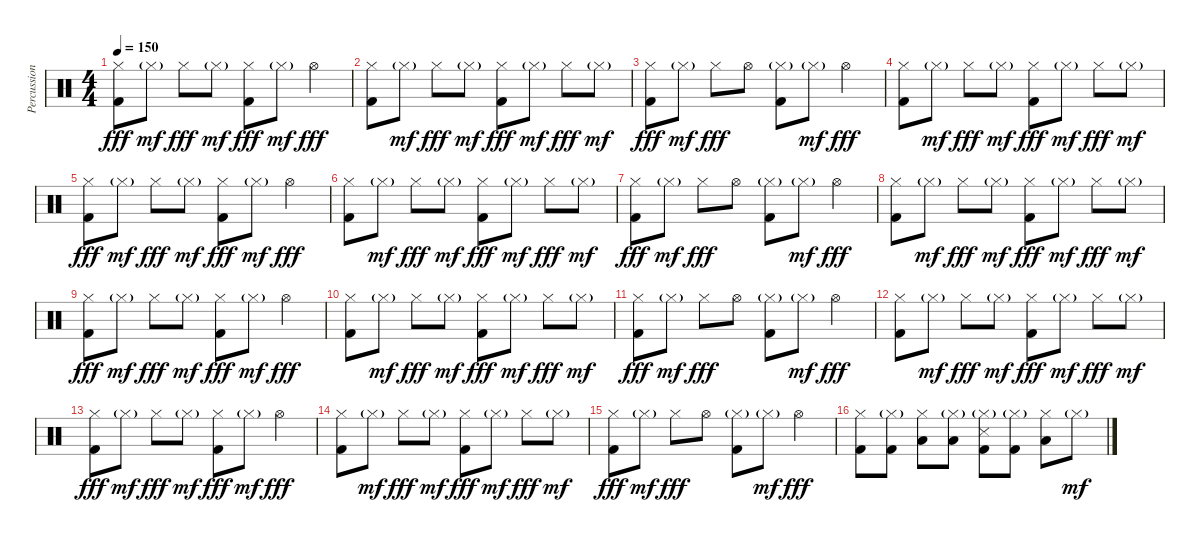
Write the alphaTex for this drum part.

\track ("Percussion" "Percussion") {instrument percussion}
\staff {score}
\articulation defaults
\ts (4 4)
\tempo 150
\clef neutral
\ks c
("Hi-Hat (closed)" "Kick (hit) 2").8{dy fff} "Hi-Hat (closed)"{g}.8{dy mf} "Hi-Hat (closed)".8{dy fff} "Hi-Hat (closed)"{g}.8{dy mf} ("Hi-Hat (closed)" "Kick (hit) 2").8{dy fff} "Hi-Hat (closed)"{g}.8{dy mf} "Hi-Hat (open)".4{dy fff} |
("Hi-Hat (closed)" "Kick (hit) 2").8 "Hi-Hat (closed)"{g}.8{dy mf} "Hi-Hat (closed)".8{dy fff} "Hi-Hat (closed)"{g}.8{dy mf} ("Hi-Hat (closed)" "Kick (hit) 2").8{dy fff} "Hi-Hat (closed)"{g}.8{dy mf} "Hi-Hat (closed)".8{dy fff} "Hi-Hat (closed)"{g}.8{dy mf} |
("Hi-Hat (closed)" "Kick (hit) 2").8{dy fff} "Hi-Hat (closed)"{g}.8{dy mf} "Hi-Hat (closed)".8{dy fff} "Hi-Hat (open)".8 ("Hi-Hat (closed)"{g} "Kick (hit) 2").8 "Hi-Hat (closed)"{g}.8{dy mf} "Hi-Hat (open)".4{dy fff} |
("Hi-Hat (closed)" "Kick (hit) 2").8 "Hi-Hat (closed)"{g}.8{dy mf} "Hi-Hat (closed)".8{dy fff} "Hi-Hat (closed)"{g}.8{dy mf} ("Hi-Hat (closed)" "Kick (hit) 2").8{dy fff} "Hi-Hat (closed)"{g}.8{dy mf} "Hi-Hat (closed)".8{dy fff} "Hi-Hat (closed)"{g}.8{dy mf} |
("Hi-Hat (closed)" "Kick (hit) 2").8{dy fff} "Hi-Hat (closed)"{g}.8{dy mf} "Hi-Hat (closed)".8{dy fff} "Hi-Hat (closed)"{g}.8{dy mf} ("Hi-Hat (closed)" "Kick (hit) 2").8{dy fff} "Hi-Hat (closed)"{g}.8{dy mf} "Hi-Hat (open)".4{dy fff} |
("Hi-Hat (closed)" "Kick (hit) 2").8 "Hi-Hat (closed)"{g}.8{dy mf} "Hi-Hat (closed)".8{dy fff} "Hi-Hat (closed)"{g}.8{dy mf} ("Hi-Hat (closed)" "Kick (hit) 2").8{dy fff} "Hi-Hat (closed)"{g}.8{dy mf} "Hi-Hat (closed)".8{dy fff} "Hi-Hat (closed)"{g}.8{dy mf} |
("Hi-Hat (closed)" "Kick (hit) 2").8{dy fff} "Hi-Hat (closed)"{g}.8{dy mf} "Hi-Hat (closed)".8{dy fff} "Hi-Hat (open)".8 ("Hi-Hat (closed)"{g} "Kick (hit) 2").8 "Hi-Hat (closed)"{g}.8{dy mf} "Hi-Hat (open)".4{dy fff} |
("Hi-Hat (closed)" "Kick (hit) 2").8 "Hi-Hat (closed)"{g}.8{dy mf} "Hi-Hat (closed)".8{dy fff} "Hi-Hat (closed)"{g}.8{dy mf} ("Hi-Hat (closed)" "Kick (hit) 2").8{dy fff} "Hi-Hat (closed)"{g}.8{dy mf} "Hi-Hat (closed)".8{dy fff} "Hi-Hat (closed)"{g}.8{dy mf} |
("Hi-Hat (closed)" "Kick (hit) 2").8{dy fff} "Hi-Hat (closed)"{g}.8{dy mf} "Hi-Hat (closed)".8{dy fff} "Hi-Hat (closed)"{g}.8{dy mf} ("Hi-Hat (closed)" "Kick (hit) 2").8{dy fff} "Hi-Hat (closed)"{g}.8{dy mf} "Hi-Hat (open)".4{dy fff} |
("Hi-Hat (closed)" "Kick (hit) 2").8 "Hi-Hat (closed)"{g}.8{dy mf} "Hi-Hat (closed)".8{dy fff} "Hi-Hat (closed)"{g}.8{dy mf} ("Hi-Hat (closed)" "Kick (hit) 2").8{dy fff} "Hi-Hat (closed)"{g}.8{dy mf} "Hi-Hat (closed)".8{dy fff} "Hi-Hat (closed)"{g}.8{dy mf} |
("Hi-Hat (closed)" "Kick (hit) 2").8{dy fff} "Hi-Hat (closed)"{g}.8{dy mf} "Hi-Hat (closed)".8{dy fff} "Hi-Hat (open)".8 ("Hi-Hat (closed)"{g} "Kick (hit) 2").8 "Hi-Hat (closed)"{g}.8{dy mf} "Hi-Hat (open)".4{dy fff} |
("Hi-Hat (closed)" "Kick (hit) 2").8 "Hi-Hat (closed)"{g}.8{dy mf} "Hi-Hat (closed)".8{dy fff} "Hi-Hat (closed)"{g}.8{dy mf} ("Hi-Hat (closed)" "Kick (hit) 2").8{dy fff} "Hi-Hat (closed)"{g}.8{dy mf} "Hi-Hat (closed)".8{dy fff} "Hi-Hat (closed)"{g}.8{dy mf} |
("Hi-Hat (closed)" "Kick (hit) 2").8{dy fff} "Hi-Hat (closed)"{g}.8{dy mf} "Hi-Hat (closed)".8{dy fff} "Hi-Hat (closed)"{g}.8{dy mf} ("Hi-Hat (closed)" "Kick (hit) 2").8{dy fff} "Hi-Hat (closed)"{g}.8{dy mf} "Hi-Hat (open)".4{dy fff} |
("Hi-Hat (closed)" "Kick (hit) 2").8 "Hi-Hat (closed)"{g}.8{dy mf} "Hi-Hat (closed)".8{dy fff} "Hi-Hat (closed)"{g}.8{dy mf} ("Hi-Hat (closed)" "Kick (hit) 2").8{dy fff} "Hi-Hat (closed)"{g}.8{dy mf} "Hi-Hat (closed)".8{dy fff} "Hi-Hat (closed)"{g}.8{dy mf} |
("Hi-Hat (closed)" "Kick (hit) 2").8{dy fff} "Hi-Hat (closed)"{g}.8{dy mf} "Hi-Hat (closed)".8{dy fff} "Hi-Hat (open)".8 ("Hi-Hat (closed)"{g} "Kick (hit) 2").8 "Hi-Hat (closed)"{g}.8{dy mf} "Hi-Hat (open)".4{dy fff} |
("Hi-Hat (closed)" "Kick (hit) 2").8 ("Hi-Hat (closed)"{g} "Kick (hit) 2").8 ("Hi-Hat (closed)" "Low Tom (hit)").8 ("Hi-Hat (closed)"{g} "Low Tom (hit)").8 ("Hi-Hat (closed)"{g} "Kick (hit) 2" "Snare (side stick) 3").8 ("Hi-Hat (closed)"{g} "Kick (hit) 2").8 ("Hi-Hat (closed)" "Low Floor Tom (hit)").8 "Hi-Hat (closed)"{g}.8{dy mf}
